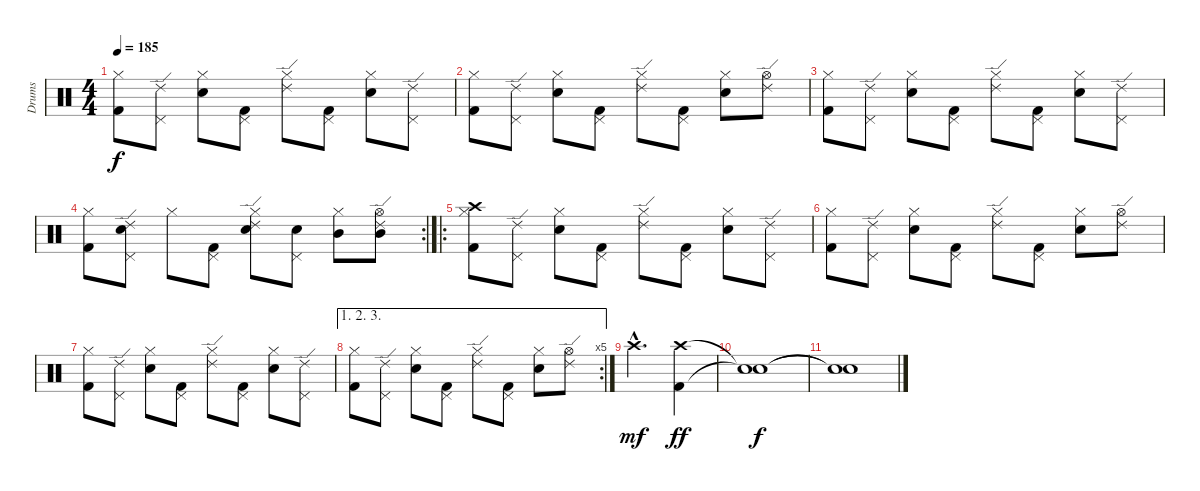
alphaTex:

\track ("Drums" "Drums") {instrument percussion}
\staff {score}
\articulation defaults
\ts (4 4)
\tempo 185
\clef neutral
\ks c
("Kick (hit) 2" "Hi-Hat (closed)").8{dy f} ("Ride (edge) 2" "Pedal Hi-Hat (hit)").8 ("Electric Snare (hit)" "Hi-Hat (closed)").8 ("Kick (hit) 2" "Pedal Hi-Hat (hit)").8 ("Ride (edge) 2" "Hi-Hat (closed)").8 ("Kick (hit) 2" "Pedal Hi-Hat (hit)").8 ("Electric Snare (hit)" "Hi-Hat (closed)").8 ("Ride (edge) 2" "Pedal Hi-Hat (hit)").8 |
("Kick (hit) 2" "Hi-Hat (closed)").8 ("Ride (edge) 2" "Pedal Hi-Hat (hit)").8 ("Electric Snare (hit)" "Hi-Hat (closed)").8 ("Kick (hit) 2" "Pedal Hi-Hat (hit)").8 ("Ride (edge) 2" "Hi-Hat (closed)").8 ("Kick (hit) 2" "Pedal Hi-Hat (hit)").8 ("Electric Snare (hit)" "Hi-Hat (closed)").8 ("Ride (edge) 2" "Hi-Hat (open)").8 |
("Kick (hit) 2" "Hi-Hat (closed)").8 ("Ride (edge) 2" "Pedal Hi-Hat (hit)").8 ("Electric Snare (hit)" "Hi-Hat (closed)").8 ("Kick (hit) 2" "Pedal Hi-Hat (hit)").8 ("Ride (edge) 2" "Hi-Hat (closed)").8 ("Kick (hit) 2" "Pedal Hi-Hat (hit)").8 ("Electric Snare (hit)" "Hi-Hat (closed)").8 ("Ride (edge) 2" "Pedal Hi-Hat (hit)").8 |
\rc 2
("Kick (hit) 2" "Hi-Hat (closed)").8 ("Electric Snare (hit)" "Ride (edge) 2" "Pedal Hi-Hat (hit)").8 "Hi-Hat (closed)".8 ("Kick (hit) 2" "Pedal Hi-Hat (hit)").8 ("Electric Snare (hit)" "Ride (edge) 2" "Hi-Hat (closed)").8 ("Electric Snare (hit)" "Pedal Hi-Hat (hit)").8 ("Mid Tom (hit)" "Hi-Hat (closed)").8 ("Mid Tom (hit)" "Ride (edge) 2" "Hi-Hat (open)").8 |
\ro
("Kick (hit) 2" "Crash high (hit)" "Hi-Hat (closed)").8 ("Ride (edge) 2" "Pedal Hi-Hat (hit)").8 ("Electric Snare (hit)" "Hi-Hat (closed)").8 ("Kick (hit) 2" "Pedal Hi-Hat (hit)").8 ("Ride (edge) 2" "Hi-Hat (closed)").8 ("Kick (hit) 2" "Pedal Hi-Hat (hit)").8 ("Electric Snare (hit)" "Hi-Hat (closed)").8 ("Ride (edge) 2" "Pedal Hi-Hat (hit)").8 |
("Kick (hit) 2" "Hi-Hat (closed)").8 ("Ride (edge) 2" "Pedal Hi-Hat (hit)").8 ("Electric Snare (hit)" "Hi-Hat (closed)").8 ("Kick (hit) 2" "Pedal Hi-Hat (hit)").8 ("Ride (edge) 2" "Hi-Hat (closed)").8 ("Kick (hit) 2" "Pedal Hi-Hat (hit)").8 ("Electric Snare (hit)" "Hi-Hat (closed)").8 ("Ride (edge) 2" "Hi-Hat (open)").8 |
("Kick (hit) 2" "Hi-Hat (closed)").8 ("Ride (edge) 2" "Pedal Hi-Hat (hit)").8 ("Electric Snare (hit)" "Hi-Hat (closed)").8 ("Kick (hit) 2" "Pedal Hi-Hat (hit)").8 ("Ride (edge) 2" "Hi-Hat (closed)").8 ("Kick (hit) 2" "Pedal Hi-Hat (hit)").8 ("Electric Snare (hit)" "Hi-Hat (closed)").8 ("Ride (edge) 2" "Pedal Hi-Hat (hit)").8 |
\ae (1 2 3)
\rc 5
("Kick (hit) 2" "Hi-Hat (closed)").8 ("Ride (edge) 2" "Pedal Hi-Hat (hit)").8 ("Electric Snare (hit)" "Hi-Hat (closed)").8 ("Kick (hit) 2" "Pedal Hi-Hat (hit)").8 ("Ride (edge) 2" "Hi-Hat (closed)").8 ("Kick (hit) 2" "Pedal Hi-Hat (hit)").8 ("Electric Snare (hit)" "Hi-Hat (closed)").8 ("Ride (edge) 2" "Hi-Hat (open)").8 |
"Crash high (hit)"{hac}.2{d dy mf} ("Crash high (hit)" "Kick (hit) 2").4{dy ff} |
("Snare (hit)"{t} "Snare (hit)"{t}).1{dy f} |
("Snare (hit)"{t} "Snare (hit)"{t}).1
